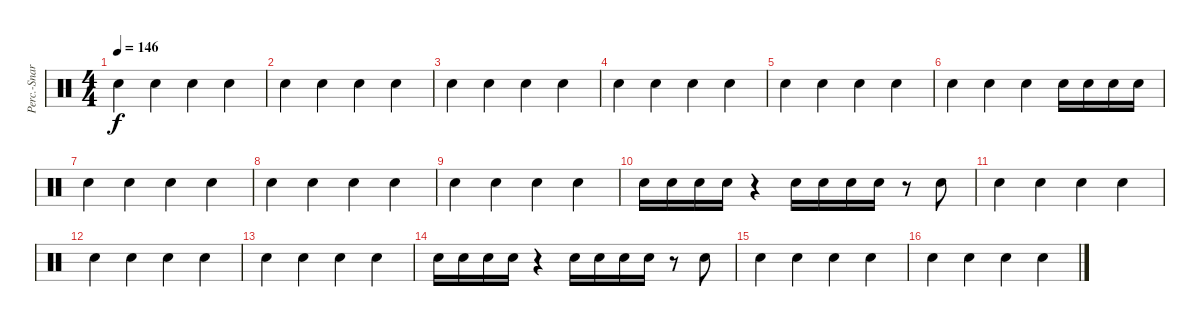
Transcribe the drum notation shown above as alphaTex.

\track ("Perc.-Snare" "Perc.-Snar") {instrument percussion}
\staff {score}
\articulation defaults
\ts (4 4)
\tempo 146
\clef neutral
\ks c "Snare (hit) 2".4{dy f} "Snare (hit) 2".4 "Snare (hit) 2".4 "Snare (hit) 2".4
|
"Snare (hit) 2".4 "Snare (hit) 2".4 "Snare (hit) 2".4 "Snare (hit) 2".4 |
"Snare (hit) 2".4 "Snare (hit) 2".4 "Snare (hit) 2".4 "Snare (hit) 2".4 |
"Snare (hit) 2".4 "Snare (hit) 2".4 "Snare (hit) 2".4 "Snare (hit) 2".4 |
"Snare (hit) 2".4 "Snare (hit) 2".4 "Snare (hit) 2".4 "Snare (hit) 2".4 |
"Snare (hit) 2".4 "Snare (hit) 2".4 "Snare (hit) 2".4 "Snare (hit) 2".16 "Snare (hit) 2".16 "Snare (hit) 2".16 "Snare (hit) 2".16 |
"Snare (hit) 2".4 "Snare (hit) 2".4 "Snare (hit) 2".4 "Snare (hit) 2".4 |
"Snare (hit) 2".4 "Snare (hit) 2".4 "Snare (hit) 2".4 "Snare (hit) 2".4 |
"Snare (hit) 2".4 "Snare (hit) 2".4 "Snare (hit) 2".4 "Snare (hit) 2".4 |
"Snare (hit) 2".16 "Snare (hit) 2".16 "Snare (hit) 2".16 "Snare (hit) 2".16 r.4 "Snare (hit) 2".16 "Snare (hit) 2".16 "Snare (hit) 2".16 "Snare (hit) 2".16 r.8 "Snare (hit) 2".8 |
"Snare (hit) 2".4 "Snare (hit) 2".4 "Snare (hit) 2".4 "Snare (hit) 2".4 |
"Snare (hit) 2".4 "Snare (hit) 2".4 "Snare (hit) 2".4 "Snare (hit) 2".4 |
"Snare (hit) 2".4 "Snare (hit) 2".4 "Snare (hit) 2".4 "Snare (hit) 2".4 |
"Snare (hit) 2".16 "Snare (hit) 2".16 "Snare (hit) 2".16 "Snare (hit) 2".16 r.4 "Snare (hit) 2".16 "Snare (hit) 2".16 "Snare (hit) 2".16 "Snare (hit) 2".16 r.8 "Snare (hit) 2".8 |
"Snare (hit) 2".4 "Snare (hit) 2".4 "Snare (hit) 2".4 "Snare (hit) 2".4 |
"Snare (hit) 2".4 "Snare (hit) 2".4 "Snare (hit) 2".4 "Snare (hit) 2".4
